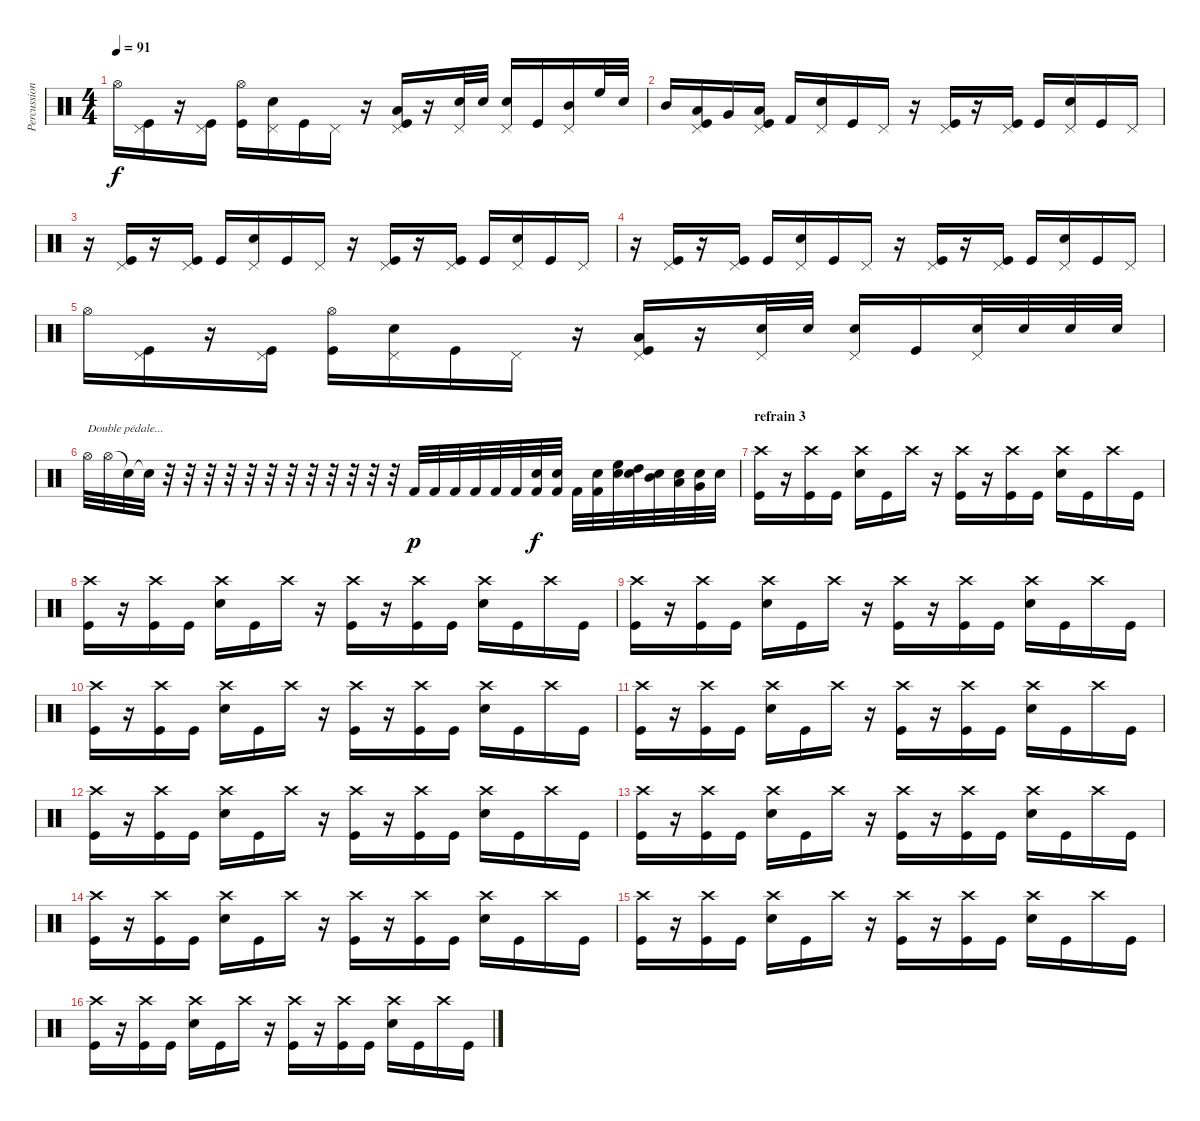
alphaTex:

\track ("Percussions (Nejo)" "Percussion") {instrument percussion}
\staff {score}
\articulation defaults
\ts (4 4)
\tempo 91
\clef neutral
\ks c "Hi-Hat (open)".16{dy f}
("Pedal Hi-Hat (hit)" "Kick (hit)").16 r.16 ("Pedal Hi-Hat (hit)" "Kick (hit)").16 ("Hi-Hat (open)" "Kick (hit)").16 ("Pedal Hi-Hat (hit)" "Electric Snare (hit)").16 "Kick (hit)".16 "Pedal Hi-Hat (hit)".16 r.16 ("Pedal Hi-Hat (hit)" "Low Tom (hit)" "Kick (hit)").16 r.16 ("Pedal Hi-Hat (hit)" "Electric Snare (hit)").32 "Electric Snare (hit)".32 ("Pedal Hi-Hat (hit)" "Electric Snare (hit)").16 "Kick (hit)".16 ("Pedal Hi-Hat (hit)" "Mid Tom (hit)").16 "High Floor Tom (hit)".32 "Snare (hit) 2".32 |
"Mid Tom (hit)".16 ("Pedal Hi-Hat (hit)" "Low Tom (hit)" "Kick (hit)").16 "Very Low Tom (hit)".16 ("Pedal Hi-Hat (hit)" "Low Floor Tom (hit)" "Kick (hit)").16 "Kick (hit) 2".16 ("Pedal Hi-Hat (hit)" "Electric Snare (hit)").16 "Kick (hit)".16 "Pedal Hi-Hat (hit)".16 r.16 ("Pedal Hi-Hat (hit)" "Kick (hit)").16 r.16 ("Pedal Hi-Hat (hit)" "Kick (hit)").16 "Kick (hit)".16 ("Pedal Hi-Hat (hit)" "Electric Snare (hit)").16 "Kick (hit)".16 "Pedal Hi-Hat (hit)".16 |
r.16 ("Pedal Hi-Hat (hit)" "Kick (hit)").16 r.16 ("Pedal Hi-Hat (hit)" "Kick (hit)").16 "Kick (hit)".16 ("Pedal Hi-Hat (hit)" "Electric Snare (hit)").16 "Kick (hit)".16 "Pedal Hi-Hat (hit)".16 r.16 ("Pedal Hi-Hat (hit)" "Kick (hit)").16 r.16 ("Pedal Hi-Hat (hit)" "Kick (hit)").16 "Kick (hit)".16 ("Pedal Hi-Hat (hit)" "Electric Snare (hit)").16 "Kick (hit)".16 "Pedal Hi-Hat (hit)".16 |
r.16 ("Pedal Hi-Hat (hit)" "Kick (hit)").16 r.16 ("Pedal Hi-Hat (hit)" "Kick (hit)").16 "Kick (hit)".16 ("Pedal Hi-Hat (hit)" "Electric Snare (hit)").16 "Kick (hit)".16 "Pedal Hi-Hat (hit)".16 r.16 ("Pedal Hi-Hat (hit)" "Kick (hit)").16 r.16 ("Pedal Hi-Hat (hit)" "Kick (hit)").16 "Kick (hit)".16 ("Pedal Hi-Hat (hit)" "Electric Snare (hit)").16 "Kick (hit)".16 "Pedal Hi-Hat (hit)".16 |
"Hi-Hat (open)".16 ("Pedal Hi-Hat (hit)" "Kick (hit)").16 r.16 ("Pedal Hi-Hat (hit)" "Kick (hit)").16 ("Hi-Hat (open)" "Kick (hit)").16 ("Pedal Hi-Hat (hit)" "Electric Snare (hit)").16 "Kick (hit)".16 "Pedal Hi-Hat (hit)".16 r.16 ("Pedal Hi-Hat (hit)" "Low Tom (hit)" "Kick (hit)").16 r.16 ("Pedal Hi-Hat (hit)" "Electric Snare (hit)").32 "Electric Snare (hit)".32 ("Pedal Hi-Hat (hit)" "Electric Snare (hit)").16 "Kick (hit)".16 ("Pedal Hi-Hat (hit)" "Electric Snare (hit)").32 "Electric Snare (hit)".32 "Electric Snare (hit)".32 "Electric Snare (hit)".32 |
"Hi-Hat (open)".32{txt "Double pédale..."} "Hi-Hat (open)".32 "Snare (hit)"{t}.32 "Snare (hit)"{t}.32 r.32 r.32 r.32 r.32 r.32 r.32 r.32 r.32 r.32 r.32 r.32 r.32 "Kick (hit) 2".32{dy p} "Kick (hit) 2".32 "Kick (hit) 2".32 "Kick (hit) 2".32 "Kick (hit) 2".32 "Kick (hit) 2".32 ("Electric Snare (hit)" "Kick (hit) 2").32{dy f} ("Electric Snare (hit)" "Kick (hit) 2").32 "Kick (hit) 2".32 ("Electric Snare (hit)" "Kick (hit) 2").32 ("High Floor Tom (hit)" "Snare (hit) 2").32 ("High Tom (hit)" "Snare (hit) 2").32 ("Mid Tom (hit)" "Snare (hit) 2").32 ("Low Tom (hit)" "Snare (hit) 2").32 ("Very Low Tom (hit)" "Snare (hit) 2").32 "Snare (hit) 2".32 |
\section ("" "refrain 3")
("Crash high (hit)" "Kick (hit)").16 r.16 ("Crash high (hit)" "Kick (hit)").16 "Kick (hit)".16 ("Crash high (hit)" "Electric Snare (hit)").16 "Kick (hit)".16 "Crash high (hit)".16 r.16 ("Crash high (hit)" "Kick (hit)").16 r.16 ("Crash high (hit)" "Kick (hit)").16 "Kick (hit)".16 ("Crash high (hit)" "Electric Snare (hit)").16 "Kick (hit)".16 "Crash high (hit)".16 "Kick (hit)".16 |
("Crash high (hit)" "Kick (hit)").16 r.16 ("Crash high (hit)" "Kick (hit)").16 "Kick (hit)".16 ("Crash high (hit)" "Electric Snare (hit)").16 "Kick (hit)".16 "Crash high (hit)".16 r.16 ("Crash high (hit)" "Kick (hit)").16 r.16 ("Crash high (hit)" "Kick (hit)").16 "Kick (hit)".16 ("Crash high (hit)" "Electric Snare (hit)").16 "Kick (hit)".16 "Crash high (hit)".16 "Kick (hit)".16 |
("Crash high (hit)" "Kick (hit)").16 r.16 ("Crash high (hit)" "Kick (hit)").16 "Kick (hit)".16 ("Crash high (hit)" "Electric Snare (hit)").16 "Kick (hit)".16 "Crash high (hit)".16 r.16 ("Crash high (hit)" "Kick (hit)").16 r.16 ("Crash high (hit)" "Kick (hit)").16 "Kick (hit)".16 ("Crash high (hit)" "Electric Snare (hit)").16 "Kick (hit)".16 "Crash high (hit)".16 "Kick (hit)".16 |
("Crash high (hit)" "Kick (hit)").16 r.16 ("Crash high (hit)" "Kick (hit)").16 "Kick (hit)".16 ("Crash high (hit)" "Electric Snare (hit)").16 "Kick (hit)".16 "Crash high (hit)".16 r.16 ("Crash high (hit)" "Kick (hit)").16 r.16 ("Crash high (hit)" "Kick (hit)").16 "Kick (hit)".16 ("Crash high (hit)" "Electric Snare (hit)").16 "Kick (hit)".16 "Crash high (hit)".16 "Kick (hit)".16 |
("Crash high (hit)" "Kick (hit)").16 r.16 ("Crash high (hit)" "Kick (hit)").16 "Kick (hit)".16 ("Crash high (hit)" "Electric Snare (hit)").16 "Kick (hit)".16 "Crash high (hit)".16 r.16 ("Crash high (hit)" "Kick (hit)").16 r.16 ("Crash high (hit)" "Kick (hit)").16 "Kick (hit)".16 ("Crash high (hit)" "Electric Snare (hit)").16 "Kick (hit)".16 "Crash high (hit)".16 "Kick (hit)".16 |
("Crash high (hit)" "Kick (hit)").16 r.16 ("Crash high (hit)" "Kick (hit)").16 "Kick (hit)".16 ("Crash high (hit)" "Electric Snare (hit)").16 "Kick (hit)".16 "Crash high (hit)".16 r.16 ("Crash high (hit)" "Kick (hit)").16 r.16 ("Crash high (hit)" "Kick (hit)").16 "Kick (hit)".16 ("Crash high (hit)" "Electric Snare (hit)").16 "Kick (hit)".16 "Crash high (hit)".16 "Kick (hit)".16 |
("Crash high (hit)" "Kick (hit)").16 r.16 ("Crash high (hit)" "Kick (hit)").16 "Kick (hit)".16 ("Crash high (hit)" "Electric Snare (hit)").16 "Kick (hit)".16 "Crash high (hit)".16 r.16 ("Crash high (hit)" "Kick (hit)").16 r.16 ("Crash high (hit)" "Kick (hit)").16 "Kick (hit)".16 ("Crash high (hit)" "Electric Snare (hit)").16 "Kick (hit)".16 "Crash high (hit)".16 "Kick (hit)".16 |
("Crash high (hit)" "Kick (hit)").16 r.16 ("Crash high (hit)" "Kick (hit)").16 "Kick (hit)".16 ("Crash high (hit)" "Electric Snare (hit)").16 "Kick (hit)".16 "Crash high (hit)".16 r.16 ("Crash high (hit)" "Kick (hit)").16 r.16 ("Crash high (hit)" "Kick (hit)").16 "Kick (hit)".16 ("Crash high (hit)" "Electric Snare (hit)").16 "Kick (hit)".16 "Crash high (hit)".16 "Kick (hit)".16 |
("Crash high (hit)" "Kick (hit)").16 r.16 ("Crash high (hit)" "Kick (hit)").16 "Kick (hit)".16 ("Crash high (hit)" "Electric Snare (hit)").16 "Kick (hit)".16 "Crash high (hit)".16 r.16 ("Crash high (hit)" "Kick (hit)").16 r.16 ("Crash high (hit)" "Kick (hit)").16 "Kick (hit)".16 ("Crash high (hit)" "Electric Snare (hit)").16 "Kick (hit)".16 "Crash high (hit)".16 "Kick (hit)".16 |
("Crash high (hit)" "Kick (hit)").16 r.16 ("Crash high (hit)" "Kick (hit)").16 "Kick (hit)".16 ("Crash high (hit)" "Electric Snare (hit)").16 "Kick (hit)".16 "Crash high (hit)".16 r.16 ("Crash high (hit)" "Kick (hit)").16 r.16 ("Crash high (hit)" "Kick (hit)").16 "Kick (hit)".16 ("Crash high (hit)" "Electric Snare (hit)").16 "Kick (hit)".16 "Crash high (hit)".16 "Kick (hit)".16
